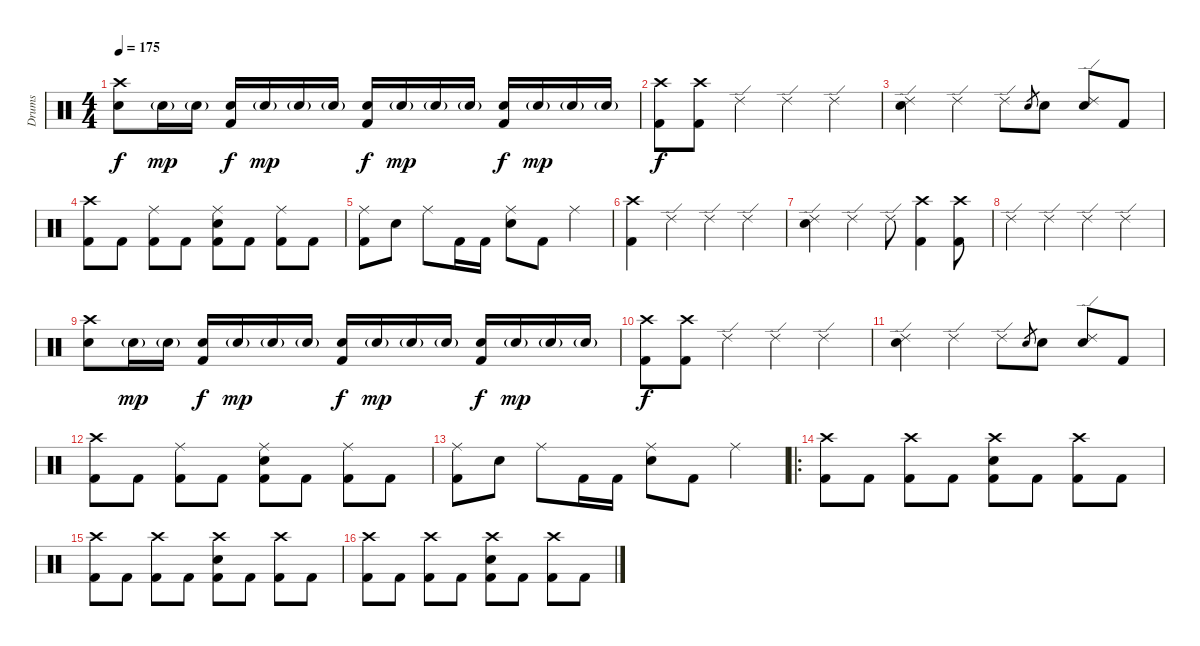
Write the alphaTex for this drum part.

\track ("Drums" "Drums") {instrument percussion}
\staff {score}
\articulation defaults
\ts (4 4)
\tempo 175
\clef neutral
\ks c
("Crash high (hit)" "Electric Snare (hit)").8{dy f} "Electric Snare (hit)"{g}.16{dy mp} "Electric Snare (hit)"{g}.16 ("Electric Snare (hit)" "Kick (hit) 2").16{dy f} "Electric Snare (hit)"{g}.16{dy mp} "Electric Snare (hit)"{g}.16 "Electric Snare (hit)"{g}.16 ("Electric Snare (hit)" "Kick (hit) 2").16{dy f} "Electric Snare (hit)"{g}.16{dy mp} "Electric Snare (hit)"{g}.16 "Electric Snare (hit)"{g}.16 ("Electric Snare (hit)" "Kick (hit) 2").16{dy f} "Electric Snare (hit)"{g}.16{dy mp} "Electric Snare (hit)"{g}.16 "Electric Snare (hit)"{g}.16 |
("Crash high (hit)" "Kick (hit) 2").8{dy f} ("Crash high (hit)" "Kick (hit) 2").8 "Ride (edge) 2".4 "Ride (edge) 2".4 "Ride (edge) 2".4 |
("Ride (edge) 2" "Electric Snare (hit)").4 "Ride (edge) 2".4 "Ride (edge) 2".8 "Electric Snare (hit)".8{gr} "Electric Snare (hit)".8 ("Ride (edge) 2" "Electric Snare (hit)").8 "Kick (hit) 2".8 |
("Crash high (hit)" "Kick (hit) 2").8 "Kick (hit) 2".8 ("Ride (middle)" "Kick (hit) 2").8 "Kick (hit) 2".8 ("Ride (middle)" "Electric Snare (hit)" "Kick (hit) 2").8 "Kick (hit) 2".8 ("Ride (middle)" "Kick (hit) 2").8 "Kick (hit) 2".8 |
("Ride (middle)" "Kick (hit) 2").8 "Electric Snare (hit)".8 "Ride (middle)".8 "Kick (hit) 2".16 "Kick (hit) 2".16 ("Ride (middle)" "Electric Snare (hit)").8 "Kick (hit) 2".8 "Ride (middle)".4 |
("Crash high (hit)" "Kick (hit) 2").4 "Ride (edge) 2".4 "Ride (edge) 2".4 "Ride (edge) 2".4 |
("Ride (edge) 2" "Electric Snare (hit)").4 "Ride (edge) 2".4 "Ride (edge) 2".8 ("Crash high (hit)" "Kick (hit) 2").4 ("Crash high (hit)" "Kick (hit) 2").8 |
"Ride (edge) 2".4 "Ride (edge) 2".4 "Ride (edge) 2".4 "Ride (edge) 2".4 |
("Crash high (hit)" "Electric Snare (hit)").8 "Electric Snare (hit)"{g}.16{dy mp} "Electric Snare (hit)"{g}.16 ("Electric Snare (hit)" "Kick (hit) 2").16{dy f} "Electric Snare (hit)"{g}.16{dy mp} "Electric Snare (hit)"{g}.16 "Electric Snare (hit)"{g}.16 ("Electric Snare (hit)" "Kick (hit) 2").16{dy f} "Electric Snare (hit)"{g}.16{dy mp} "Electric Snare (hit)"{g}.16 "Electric Snare (hit)"{g}.16 ("Electric Snare (hit)" "Kick (hit) 2").16{dy f} "Electric Snare (hit)"{g}.16{dy mp} "Electric Snare (hit)"{g}.16 "Electric Snare (hit)"{g}.16 |
("Crash high (hit)" "Kick (hit) 2").8{dy f} ("Crash high (hit)" "Kick (hit) 2").8 "Ride (edge) 2".4 "Ride (edge) 2".4 "Ride (edge) 2".4 |
("Ride (edge) 2" "Electric Snare (hit)").4 "Ride (edge) 2".4 "Ride (edge) 2".8 "Electric Snare (hit)".8{gr} "Electric Snare (hit)".8 ("Ride (edge) 2" "Electric Snare (hit)").8 "Kick (hit) 2".8 |
("Crash high (hit)" "Kick (hit) 2").8 "Kick (hit) 2".8 ("Ride (middle)" "Kick (hit) 2").8 "Kick (hit) 2".8 ("Ride (middle)" "Electric Snare (hit)" "Kick (hit) 2").8 "Kick (hit) 2".8 ("Ride (middle)" "Kick (hit) 2").8 "Kick (hit) 2".8 |
("Ride (middle)" "Kick (hit) 2").8 "Electric Snare (hit)".8 "Ride (middle)".8 "Kick (hit) 2".16 "Kick (hit) 2".16 ("Ride (middle)" "Electric Snare (hit)").8 "Kick (hit) 2".8 "Ride (middle)".4 |
\ro
("Crash high (hit)" "Kick (hit) 2").8 "Kick (hit) 2".8 ("Crash high (hit)" "Kick (hit) 2").8 "Kick (hit) 2".8 ("Crash high (hit)" "Electric Snare (hit)" "Kick (hit) 2").8 "Kick (hit) 2".8 ("Crash high (hit)" "Kick (hit) 2").8 "Kick (hit) 2".8 |
("Crash high (hit)" "Kick (hit) 2").8 "Kick (hit) 2".8 ("Crash high (hit)" "Kick (hit) 2").8 "Kick (hit) 2".8 ("Crash high (hit)" "Electric Snare (hit)" "Kick (hit) 2").8 "Kick (hit) 2".8 ("Crash high (hit)" "Kick (hit) 2").8 "Kick (hit) 2".8 |
("Crash high (hit)" "Kick (hit) 2").8 "Kick (hit) 2".8 ("Crash high (hit)" "Kick (hit) 2").8 "Kick (hit) 2".8 ("Crash high (hit)" "Electric Snare (hit)" "Kick (hit) 2").8 "Kick (hit) 2".8 ("Crash high (hit)" "Kick (hit) 2").8 "Kick (hit) 2".8
